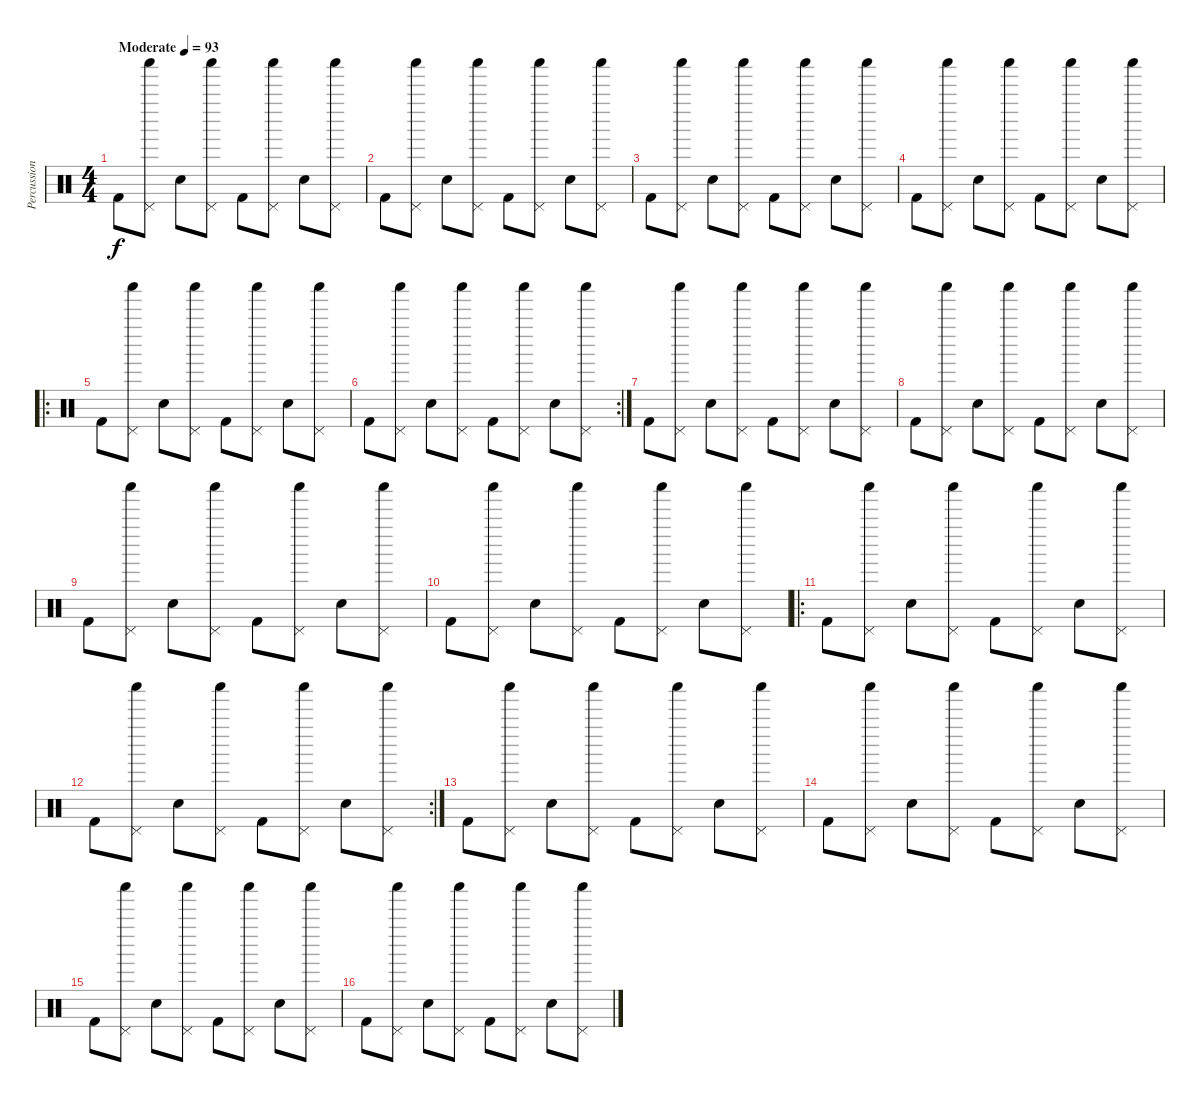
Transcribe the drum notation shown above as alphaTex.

\track ("Percussion" "Percussion") {instrument percussion}
\staff {score}
\articulation defaults
\ts (4 4)
\tempo (93 "Moderate")
\clef neutral
\ks c "Kick (hit) 2".8{dy f}
("Shaker (hit)" "Pedal Hi-Hat (hit)").8 "Snare (hit) 2".8 ("Shaker (hit)" "Pedal Hi-Hat (hit)").8 "Kick (hit) 2".8 ("Shaker (hit)" "Pedal Hi-Hat (hit)").8 "Snare (hit) 2".8 ("Shaker (hit)" "Pedal Hi-Hat (hit)").8 |
"Kick (hit) 2".8 ("Shaker (hit)" "Pedal Hi-Hat (hit)").8 "Snare (hit) 2".8 ("Shaker (hit)" "Pedal Hi-Hat (hit)").8 "Kick (hit) 2".8 ("Shaker (hit)" "Pedal Hi-Hat (hit)").8 "Snare (hit) 2".8 ("Shaker (hit)" "Pedal Hi-Hat (hit)").8 |
"Kick (hit) 2".8 ("Shaker (hit)" "Pedal Hi-Hat (hit)").8 "Snare (hit) 2".8 ("Shaker (hit)" "Pedal Hi-Hat (hit)").8 "Kick (hit) 2".8 ("Shaker (hit)" "Pedal Hi-Hat (hit)").8 "Snare (hit) 2".8 ("Shaker (hit)" "Pedal Hi-Hat (hit)").8 |
"Kick (hit) 2".8 ("Shaker (hit)" "Pedal Hi-Hat (hit)").8 "Snare (hit) 2".8 ("Shaker (hit)" "Pedal Hi-Hat (hit)").8 "Kick (hit) 2".8 ("Shaker (hit)" "Pedal Hi-Hat (hit)").8 "Snare (hit) 2".8 ("Shaker (hit)" "Pedal Hi-Hat (hit)").8 |
\ro "Kick (hit) 2".8
("Shaker (hit)" "Pedal Hi-Hat (hit)").8 "Snare (hit) 2".8 ("Shaker (hit)" "Pedal Hi-Hat (hit)").8 "Kick (hit) 2".8 ("Shaker (hit)" "Pedal Hi-Hat (hit)").8 "Snare (hit) 2".8 ("Shaker (hit)" "Pedal Hi-Hat (hit)").8 |
\rc 2 "Kick (hit) 2".8
("Shaker (hit)" "Pedal Hi-Hat (hit)").8 "Snare (hit) 2".8 ("Shaker (hit)" "Pedal Hi-Hat (hit)").8 "Kick (hit) 2".8 ("Shaker (hit)" "Pedal Hi-Hat (hit)").8 "Snare (hit) 2".8 ("Shaker (hit)" "Pedal Hi-Hat (hit)").8 |
"Kick (hit) 2".8 ("Shaker (hit)" "Pedal Hi-Hat (hit)").8 "Snare (hit) 2".8 ("Shaker (hit)" "Pedal Hi-Hat (hit)").8 "Kick (hit) 2".8 ("Shaker (hit)" "Pedal Hi-Hat (hit)").8 "Snare (hit) 2".8 ("Shaker (hit)" "Pedal Hi-Hat (hit)").8 |
"Kick (hit) 2".8 ("Shaker (hit)" "Pedal Hi-Hat (hit)").8 "Snare (hit) 2".8 ("Shaker (hit)" "Pedal Hi-Hat (hit)").8 "Kick (hit) 2".8 ("Shaker (hit)" "Pedal Hi-Hat (hit)").8 "Snare (hit) 2".8 ("Shaker (hit)" "Pedal Hi-Hat (hit)").8 |
"Kick (hit) 2".8 ("Shaker (hit)" "Pedal Hi-Hat (hit)").8 "Snare (hit) 2".8 ("Shaker (hit)" "Pedal Hi-Hat (hit)").8 "Kick (hit) 2".8 ("Shaker (hit)" "Pedal Hi-Hat (hit)").8 "Snare (hit) 2".8 ("Shaker (hit)" "Pedal Hi-Hat (hit)").8 |
"Kick (hit) 2".8 ("Shaker (hit)" "Pedal Hi-Hat (hit)").8 "Snare (hit) 2".8 ("Shaker (hit)" "Pedal Hi-Hat (hit)").8 "Kick (hit) 2".8 ("Shaker (hit)" "Pedal Hi-Hat (hit)").8 "Snare (hit) 2".8 ("Shaker (hit)" "Pedal Hi-Hat (hit)").8 |
\ro "Kick (hit) 2".8
("Shaker (hit)" "Pedal Hi-Hat (hit)").8 "Snare (hit) 2".8 ("Shaker (hit)" "Pedal Hi-Hat (hit)").8 "Kick (hit) 2".8 ("Shaker (hit)" "Pedal Hi-Hat (hit)").8 "Snare (hit) 2".8 ("Shaker (hit)" "Pedal Hi-Hat (hit)").8 |
\rc 2 "Kick (hit) 2".8
("Shaker (hit)" "Pedal Hi-Hat (hit)").8 "Snare (hit) 2".8 ("Shaker (hit)" "Pedal Hi-Hat (hit)").8 "Kick (hit) 2".8 ("Shaker (hit)" "Pedal Hi-Hat (hit)").8 "Snare (hit) 2".8 ("Shaker (hit)" "Pedal Hi-Hat (hit)").8 |
"Kick (hit) 2".8 ("Shaker (hit)" "Pedal Hi-Hat (hit)").8 "Snare (hit) 2".8 ("Shaker (hit)" "Pedal Hi-Hat (hit)").8 "Kick (hit) 2".8 ("Shaker (hit)" "Pedal Hi-Hat (hit)").8 "Snare (hit) 2".8 ("Shaker (hit)" "Pedal Hi-Hat (hit)").8 |
"Kick (hit) 2".8 ("Shaker (hit)" "Pedal Hi-Hat (hit)").8 "Snare (hit) 2".8 ("Shaker (hit)" "Pedal Hi-Hat (hit)").8 "Kick (hit) 2".8 ("Shaker (hit)" "Pedal Hi-Hat (hit)").8 "Snare (hit) 2".8 ("Shaker (hit)" "Pedal Hi-Hat (hit)").8 |
"Kick (hit) 2".8 ("Shaker (hit)" "Pedal Hi-Hat (hit)").8 "Snare (hit) 2".8 ("Shaker (hit)" "Pedal Hi-Hat (hit)").8 "Kick (hit) 2".8 ("Shaker (hit)" "Pedal Hi-Hat (hit)").8 "Snare (hit) 2".8 ("Shaker (hit)" "Pedal Hi-Hat (hit)").8 |
"Kick (hit) 2".8 ("Shaker (hit)" "Pedal Hi-Hat (hit)").8 "Snare (hit) 2".8 ("Shaker (hit)" "Pedal Hi-Hat (hit)").8 "Kick (hit) 2".8 ("Shaker (hit)" "Pedal Hi-Hat (hit)").8 "Snare (hit) 2".8 ("Shaker (hit)" "Pedal Hi-Hat (hit)").8
